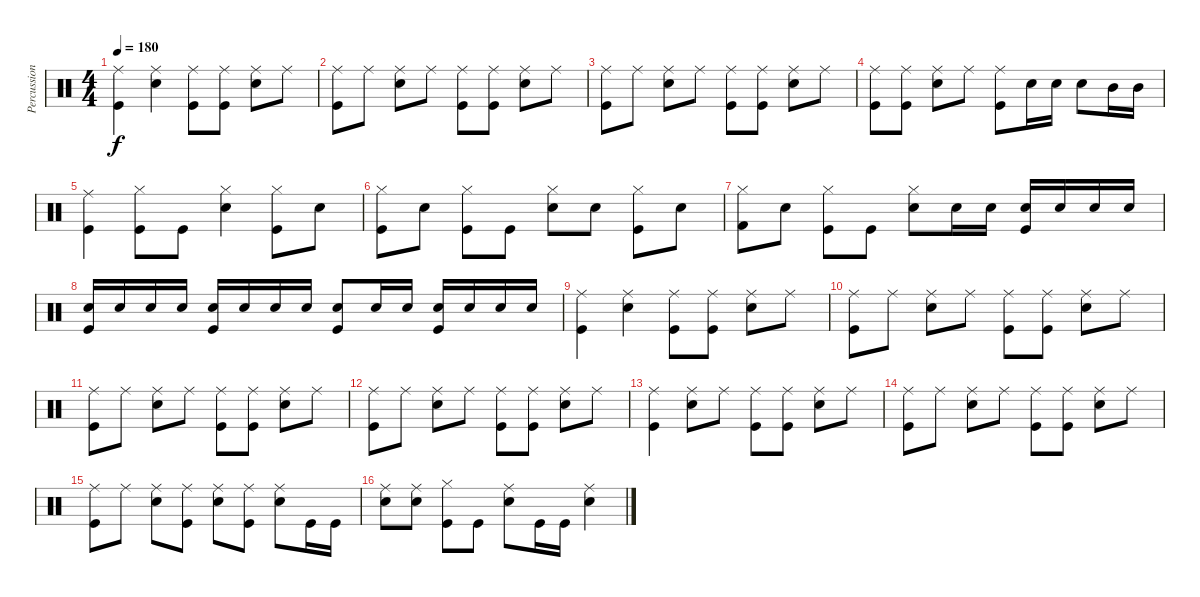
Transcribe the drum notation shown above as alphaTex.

\track ("Percussion" "Percussion") {instrument percussion}
\staff {score}
\articulation defaults
\ts (4 4)
\tempo 180
\clef neutral
\ks c
("Ride (middle)" "Kick (hit)").4{dy f} ("Ride (middle)" "Snare (hit) 2").4 ("Ride (middle)" "Kick (hit)").8 ("Ride (middle)" "Kick (hit)").8 ("Ride (middle)" "Snare (hit) 2").8 "Ride (middle)".8 |
("Ride (middle)" "Kick (hit)").8 "Ride (middle)".8 ("Ride (middle)" "Snare (hit) 2").8 "Ride (middle)".8 ("Ride (middle)" "Kick (hit)").8 ("Ride (middle)" "Kick (hit)").8 ("Ride (middle)" "Snare (hit) 2").8 "Ride (middle)".8 |
("Ride (middle)" "Kick (hit)").8 "Ride (middle)".8 ("Ride (middle)" "Snare (hit) 2").8 "Ride (middle)".8 ("Ride (middle)" "Kick (hit)").8 ("Ride (middle)" "Kick (hit)").8 ("Ride (middle)" "Snare (hit) 2").8 "Ride (middle)".8 |
("Ride (middle)" "Kick (hit)").8 ("Ride (middle)" "Kick (hit)").8 ("Ride (middle)" "Snare (hit) 2").8 "Ride (middle)".8 ("Ride (middle)" "Kick (hit)").8 "Snare (hit) 2".16 "Snare (hit) 2".16 "Snare (hit) 2".8 "Mid Tom (hit)".16 "Mid Tom (hit)".16 |
("Ride (middle)" "Kick (hit)").4 ("Hi-Hat (closed)" "Kick (hit)").8 "Kick (hit)".8 ("Hi-Hat (closed)" "Snare (hit) 2").4 ("Hi-Hat (closed)" "Kick (hit)").8 "Snare (hit) 2".8 |
("Hi-Hat (closed)" "Kick (hit)").8 "Snare (hit) 2".8 ("Hi-Hat (closed)" "Kick (hit)").8 "Kick (hit)".8 ("Hi-Hat (closed)" "Snare (hit) 2").8 "Snare (hit) 2".8 ("Hi-Hat (closed)" "Kick (hit)").8 "Snare (hit) 2".8 |
("Hi-Hat (closed)" "Kick (hit) 2").8 "Snare (hit) 2".8 ("Hi-Hat (closed)" "Kick (hit)").8 "Kick (hit)".8 ("Hi-Hat (closed)" "Snare (hit) 2").8 "Snare (hit) 2".16 "Snare (hit) 2".16 ("Snare (hit) 2" "Kick (hit)").16 "Snare (hit) 2".16 "Snare (hit) 2".16 "Snare (hit) 2".16 |
("Snare (hit) 2" "Kick (hit)").16 "Snare (hit) 2".16 "Snare (hit) 2".16 "Snare (hit) 2".16 ("Snare (hit) 2" "Kick (hit)").16 "Snare (hit) 2".16 "Snare (hit) 2".16 "Snare (hit) 2".16 ("Snare (hit) 2" "Kick (hit)").8 "Snare (hit) 2".16 "Snare (hit) 2".16 ("Snare (hit) 2" "Kick (hit)").16 "Snare (hit) 2".16 "Snare (hit) 2".16 "Snare (hit) 2".16 |
("Ride (middle)" "Kick (hit)").4 ("Ride (middle)" "Snare (hit) 2").4 ("Ride (middle)" "Kick (hit)").8 ("Ride (middle)" "Kick (hit)").8 ("Ride (middle)" "Snare (hit) 2").8 "Ride (middle)".8 |
("Ride (middle)" "Kick (hit)").8 "Ride (middle)".8 ("Ride (middle)" "Snare (hit) 2").8 "Ride (middle)".8 ("Ride (middle)" "Kick (hit)").8 ("Ride (middle)" "Kick (hit)").8 ("Ride (middle)" "Snare (hit) 2").8 "Ride (middle)".8 |
("Ride (middle)" "Kick (hit)").8 "Ride (middle)".8 ("Ride (middle)" "Snare (hit) 2").8 "Ride (middle)".8 ("Ride (middle)" "Kick (hit)").8 ("Ride (middle)" "Kick (hit)").8 ("Ride (middle)" "Snare (hit) 2").8 "Ride (middle)".8 |
("Ride (middle)" "Kick (hit)").8 "Ride (middle)".8 ("Ride (middle)" "Snare (hit) 2").8 "Ride (middle)".8 ("Ride (middle)" "Kick (hit)").8 ("Ride (middle)" "Kick (hit)").8 ("Ride (middle)" "Snare (hit) 2").8 "Ride (middle)".8 |
("Ride (middle)" "Kick (hit)").4 ("Ride (middle)" "Snare (hit) 2").8 "Ride (middle)".8 ("Ride (middle)" "Kick (hit)").8 ("Ride (middle)" "Kick (hit)").8 ("Ride (middle)" "Snare (hit) 2").8 "Ride (middle)".8 |
("Ride (middle)" "Kick (hit)").8 "Ride (middle)".8 ("Ride (middle)" "Snare (hit) 2").8 "Ride (middle)".8 ("Ride (middle)" "Kick (hit)").8 ("Ride (middle)" "Kick (hit)").8 ("Ride (middle)" "Snare (hit) 2").8 "Ride (middle)".8 |
("Ride (middle)" "Kick (hit)").8 "Ride (middle)".8 ("Ride (middle)" "Snare (hit) 2").8 ("Ride (middle)" "Kick (hit)").8 ("Ride (middle)" "Snare (hit) 2").8 ("Ride (middle)" "Kick (hit)").8 ("Ride (middle)" "Snare (hit) 2").8 "Kick (hit)".16 "Kick (hit)".16 |
("Ride (middle)" "Snare (hit) 2").8 ("Ride (middle)" "Snare (hit) 2").8 ("Hi-Hat (closed)" "Kick (hit)").8 "Kick (hit)".8 ("Ride (middle)" "Snare (hit) 2").8 "Kick (hit)".16 "Kick (hit)".16 ("Ride (middle)" "Snare (hit) 2").4
